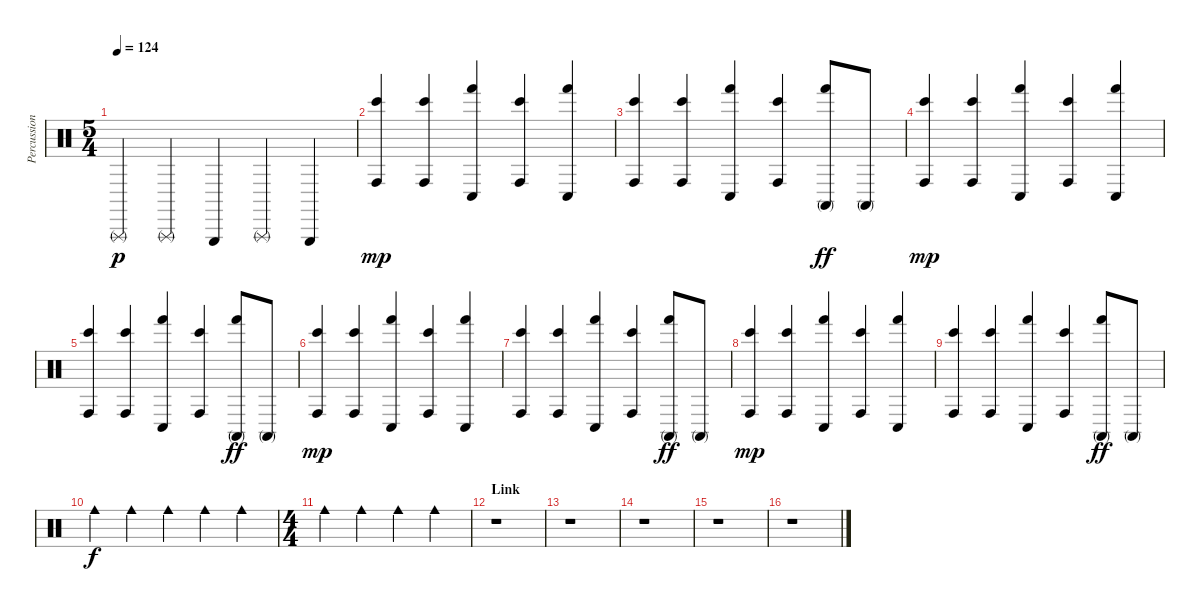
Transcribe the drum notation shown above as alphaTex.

\track ("Percussion" "Percussion") {instrument percussion}
\staff {score}
\articulation defaults
\ts (5 4)
\tempo 124
\clef neutral
\ks c "Triangle (rnute)".4{dy p} "Triangle (rnute)".4 "Triangle (hit)".4 "Triangle (rnute)".4 "Triangle (hit)".4
|
\section ("" "")
("Bongo High (hit)" "Conga high (hit)").4{dy mp} ("Bongo High (hit)" "Conga high (hit)").4 ("Hand (hit)" "Conga low (hit)").4 ("Bongo High (hit)" "Conga high (hit)").4 ("Hand (hit)" "Conga low (hit)").4 |
("Bongo High (hit)" "Conga high (hit)").4 ("Bongo High (hit)" "Conga high (hit)").4 ("Hand (hit)" "Conga low (hit)").4 ("Bongo High (hit)" "Conga high (hit)").4 ("Hand (hit)" "Conga high (mute)").8{dy ff} "Conga high (mute)".8 |
("Bongo High (hit)" "Conga high (hit)").4{dy mp} ("Bongo High (hit)" "Conga high (hit)").4 ("Hand (hit)" "Conga low (hit)").4 ("Bongo High (hit)" "Conga high (hit)").4 ("Hand (hit)" "Conga low (hit)").4 |
("Bongo High (hit)" "Conga high (hit)").4 ("Bongo High (hit)" "Conga high (hit)").4 ("Hand (hit)" "Conga low (hit)").4 ("Bongo High (hit)" "Conga high (hit)").4 ("Hand (hit)" "Conga high (mute)").8{dy ff} "Conga high (mute)".8 |
("Bongo High (hit)" "Conga high (hit)").4{dy mp} ("Bongo High (hit)" "Conga high (hit)").4 ("Hand (hit)" "Conga low (hit)").4 ("Bongo High (hit)" "Conga high (hit)").4 ("Hand (hit)" "Conga low (hit)").4 |
("Bongo High (hit)" "Conga high (hit)").4 ("Bongo High (hit)" "Conga high (hit)").4 ("Hand (hit)" "Conga low (hit)").4 ("Bongo High (hit)" "Conga high (hit)").4 ("Hand (hit)" "Conga high (mute)").8{dy ff} "Conga high (mute)".8 |
("Bongo High (hit)" "Conga high (hit)").4{dy mp} ("Bongo High (hit)" "Conga high (hit)").4 ("Hand (hit)" "Conga low (hit)").4 ("Bongo High (hit)" "Conga high (hit)").4 ("Hand (hit)" "Conga low (hit)").4 |
("Bongo High (hit)" "Conga high (hit)").4 ("Bongo High (hit)" "Conga high (hit)").4 ("Hand (hit)" "Conga low (hit)").4 ("Bongo High (hit)" "Conga high (hit)").4 ("Hand (hit)" "Conga high (mute)").8{dy ff} "Conga high (mute)".8 |
\section ("" "")
"Cowbell medium (hit)".4{dy f balance 8} "Cowbell medium (hit)".4 "Cowbell medium (hit)".4 "Cowbell medium (hit)".4 "Cowbell medium (hit)".4 |
\ts (4 4)
"Cowbell medium (hit)".4 "Cowbell medium (hit)".4 "Cowbell medium (hit)".4 "Cowbell medium (hit)".4 |
\section ("" "Link")
r.1{balance 8} |
r.1 |
r.1 |
r.1 |
r.1
